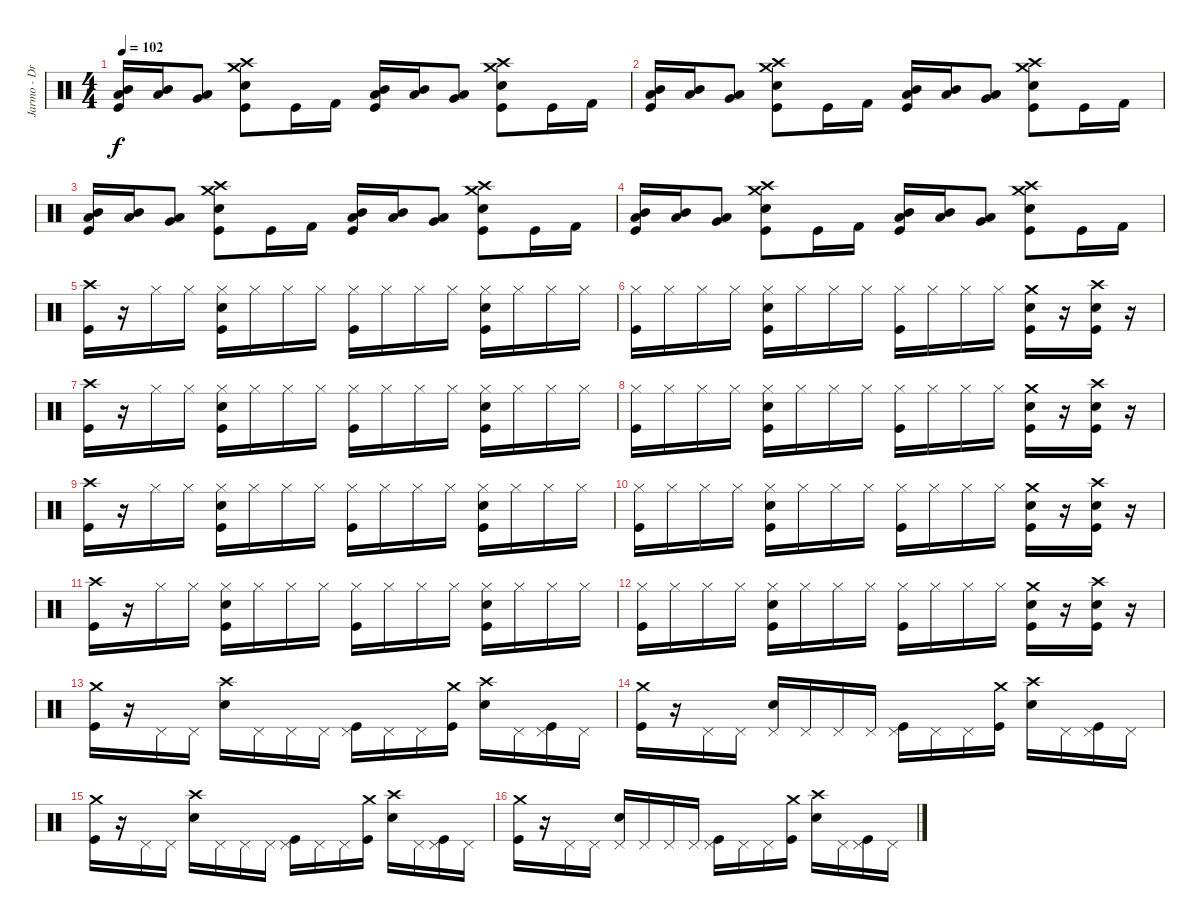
\track ("Jarmo - Drums" "Jarmo - Dr") {instrument percussion}
\staff {score}
\articulation defaults
\ts (4 4)
\tempo 102
\clef neutral
\ks c
("Kick (hit)" "Mid Tom (hit)" "Low Tom (hit)").16{dy f} ("Mid Tom (hit)" "Low Tom (hit)").16 ("Low Tom (hit)" "Very Low Tom (hit)").8 ("Kick (hit)" "Electric Snare (hit)" "Crash high (hit)" "Crash medium (hit)").8 "Kick (hit)".16 "Kick (hit) 2".16 ("Kick (hit)" "Mid Tom (hit)" "Low Tom (hit)").16 ("Mid Tom (hit)" "Low Tom (hit)").16 ("Low Tom (hit)" "Very Low Tom (hit)").8 ("Kick (hit)" "Electric Snare (hit)" "Crash high (hit)" "Crash medium (hit)").8 "Kick (hit)".16 "Kick (hit) 2".16 |
("Kick (hit)" "Mid Tom (hit)" "Low Tom (hit)").16 ("Mid Tom (hit)" "Low Tom (hit)").16 ("Low Tom (hit)" "Very Low Tom (hit)").8 ("Kick (hit)" "Electric Snare (hit)" "Crash high (hit)" "Crash medium (hit)").8 "Kick (hit)".16 "Kick (hit) 2".16 ("Kick (hit)" "Mid Tom (hit)" "Low Tom (hit)").16 ("Mid Tom (hit)" "Low Tom (hit)").16 ("Low Tom (hit)" "Very Low Tom (hit)").8 ("Kick (hit)" "Electric Snare (hit)" "Crash high (hit)" "Crash medium (hit)").8 "Kick (hit)".16 "Kick (hit) 2".16 |
("Kick (hit)" "Mid Tom (hit)" "Low Tom (hit)").16 ("Mid Tom (hit)" "Low Tom (hit)").16 ("Low Tom (hit)" "Very Low Tom (hit)").8 ("Kick (hit)" "Electric Snare (hit)" "Crash high (hit)" "Crash medium (hit)").8 "Kick (hit)".16 "Kick (hit) 2".16 ("Kick (hit)" "Mid Tom (hit)" "Low Tom (hit)").16 ("Mid Tom (hit)" "Low Tom (hit)").16 ("Low Tom (hit)" "Very Low Tom (hit)").8 ("Kick (hit)" "Electric Snare (hit)" "Crash high (hit)" "Crash medium (hit)").8 "Kick (hit)".16 "Kick (hit) 2".16 |
("Kick (hit)" "Mid Tom (hit)" "Low Tom (hit)").16 ("Mid Tom (hit)" "Low Tom (hit)").16 ("Low Tom (hit)" "Very Low Tom (hit)").8 ("Kick (hit)" "Electric Snare (hit)" "Crash high (hit)" "Crash medium (hit)").8 "Kick (hit)".16 "Kick (hit) 2".16 ("Kick (hit)" "Mid Tom (hit)" "Low Tom (hit)").16 ("Mid Tom (hit)" "Low Tom (hit)").16 ("Low Tom (hit)" "Very Low Tom (hit)").8 ("Kick (hit)" "Electric Snare (hit)" "Crash high (hit)" "Crash medium (hit)").8 "Kick (hit)".16 "Kick (hit) 2".16 |
("Kick (hit)" "Crash high (hit)").16 r.16 "Hi-Hat (closed)".16 "Hi-Hat (closed)".16 ("Kick (hit)" "Electric Snare (hit)" "Hi-Hat (closed)").16 "Hi-Hat (closed)".16 "Hi-Hat (closed)".16 "Hi-Hat (closed)".16 ("Kick (hit)" "Hi-Hat (closed)").16 "Hi-Hat (closed)".16 "Hi-Hat (closed)".16 "Hi-Hat (closed)".16 ("Kick (hit)" "Electric Snare (hit)" "Hi-Hat (closed)").16 "Hi-Hat (closed)".16 "Hi-Hat (closed)".16 "Hi-Hat (closed)".16 |
("Kick (hit)" "Hi-Hat (closed)").16 "Hi-Hat (closed)".16 "Hi-Hat (closed)".16 "Hi-Hat (closed)".16 ("Kick (hit)" "Electric Snare (hit)" "Hi-Hat (closed)").16 "Hi-Hat (closed)".16 "Hi-Hat (closed)".16 "Hi-Hat (closed)".16 ("Kick (hit)" "Hi-Hat (closed)").16 "Hi-Hat (closed)".16 "Hi-Hat (closed)".16 "Hi-Hat (closed)".16 ("Kick (hit)" "Electric Snare (hit)" "Crash medium (hit)").16 r.16 ("Kick (hit)" "Electric Snare (hit)" "Crash high (hit)").16 r.16 |
("Kick (hit)" "Crash high (hit)").16 r.16 "Hi-Hat (closed)".16 "Hi-Hat (closed)".16 ("Kick (hit)" "Electric Snare (hit)" "Hi-Hat (closed)").16 "Hi-Hat (closed)".16 "Hi-Hat (closed)".16 "Hi-Hat (closed)".16 ("Kick (hit)" "Hi-Hat (closed)").16 "Hi-Hat (closed)".16 "Hi-Hat (closed)".16 "Hi-Hat (closed)".16 ("Kick (hit)" "Electric Snare (hit)" "Hi-Hat (closed)").16 "Hi-Hat (closed)".16 "Hi-Hat (closed)".16 "Hi-Hat (closed)".16 |
("Kick (hit)" "Hi-Hat (closed)").16 "Hi-Hat (closed)".16 "Hi-Hat (closed)".16 "Hi-Hat (closed)".16 ("Kick (hit)" "Electric Snare (hit)" "Hi-Hat (closed)").16 "Hi-Hat (closed)".16 "Hi-Hat (closed)".16 "Hi-Hat (closed)".16 ("Kick (hit)" "Hi-Hat (closed)").16 "Hi-Hat (closed)".16 "Hi-Hat (closed)".16 "Hi-Hat (closed)".16 ("Kick (hit)" "Electric Snare (hit)" "Crash medium (hit)").16 r.16 ("Kick (hit)" "Electric Snare (hit)" "Crash high (hit)").16 r.16 |
("Kick (hit)" "Crash high (hit)").16 r.16 "Hi-Hat (closed)".16 "Hi-Hat (closed)".16 ("Kick (hit)" "Electric Snare (hit)" "Hi-Hat (closed)").16 "Hi-Hat (closed)".16 "Hi-Hat (closed)".16 "Hi-Hat (closed)".16 ("Kick (hit)" "Hi-Hat (closed)").16 "Hi-Hat (closed)".16 "Hi-Hat (closed)".16 "Hi-Hat (closed)".16 ("Kick (hit)" "Electric Snare (hit)" "Hi-Hat (closed)").16 "Hi-Hat (closed)".16 "Hi-Hat (closed)".16 "Hi-Hat (closed)".16 |
("Kick (hit)" "Hi-Hat (closed)").16 "Hi-Hat (closed)".16 "Hi-Hat (closed)".16 "Hi-Hat (closed)".16 ("Kick (hit)" "Electric Snare (hit)" "Hi-Hat (closed)").16 "Hi-Hat (closed)".16 "Hi-Hat (closed)".16 "Hi-Hat (closed)".16 ("Kick (hit)" "Hi-Hat (closed)").16 "Hi-Hat (closed)".16 "Hi-Hat (closed)".16 "Hi-Hat (closed)".16 ("Kick (hit)" "Electric Snare (hit)" "Crash medium (hit)").16 r.16 ("Kick (hit)" "Electric Snare (hit)" "Crash high (hit)").16 r.16 |
("Kick (hit)" "Crash high (hit)").16 r.16 "Hi-Hat (closed)".16 "Hi-Hat (closed)".16 ("Kick (hit)" "Electric Snare (hit)" "Hi-Hat (closed)").16 "Hi-Hat (closed)".16 "Hi-Hat (closed)".16 "Hi-Hat (closed)".16 ("Kick (hit)" "Hi-Hat (closed)").16 "Hi-Hat (closed)".16 "Hi-Hat (closed)".16 "Hi-Hat (closed)".16 ("Kick (hit)" "Electric Snare (hit)" "Hi-Hat (closed)").16 "Hi-Hat (closed)".16 "Hi-Hat (closed)".16 "Hi-Hat (closed)".16 |
("Kick (hit)" "Hi-Hat (closed)").16 "Hi-Hat (closed)".16 "Hi-Hat (closed)".16 "Hi-Hat (closed)".16 ("Kick (hit)" "Electric Snare (hit)" "Hi-Hat (closed)").16 "Hi-Hat (closed)".16 "Hi-Hat (closed)".16 "Hi-Hat (closed)".16 ("Kick (hit)" "Hi-Hat (closed)").16 "Hi-Hat (closed)".16 "Hi-Hat (closed)".16 "Hi-Hat (closed)".16 ("Kick (hit)" "Electric Snare (hit)" "Crash medium (hit)").16 r.16 ("Kick (hit)" "Electric Snare (hit)" "Crash high (hit)").16 r.16 |
("Crash medium (hit)" "Kick (hit)").16 r.16 "Pedal Hi-Hat (hit)".16 "Pedal Hi-Hat (hit)".16 ("Crash high (hit)" "Electric Snare (hit)").16 "Pedal Hi-Hat (hit)".16 "Pedal Hi-Hat (hit)".16 "Pedal Hi-Hat (hit)".16 ("Pedal Hi-Hat (hit)" "Kick (hit)").16 "Pedal Hi-Hat (hit)".16 "Pedal Hi-Hat (hit)".16 ("Crash medium (hit)" "Kick (hit)").16 ("Crash high (hit)" "Electric Snare (hit)").16 "Pedal Hi-Hat (hit)".16 ("Pedal Hi-Hat (hit)" "Kick (hit)").16 "Pedal Hi-Hat (hit)".16 |
("Crash medium (hit)" "Kick (hit)").16 r.16 "Pedal Hi-Hat (hit)".16 "Pedal Hi-Hat (hit)".16 ("Pedal Hi-Hat (hit)" "Electric Snare (hit)").16 "Pedal Hi-Hat (hit)".16 "Pedal Hi-Hat (hit)".16 "Pedal Hi-Hat (hit)".16 ("Pedal Hi-Hat (hit)" "Kick (hit)").16 "Pedal Hi-Hat (hit)".16 "Pedal Hi-Hat (hit)".16 ("Crash medium (hit)" "Kick (hit)").16 ("Crash high (hit)" "Electric Snare (hit)").16 "Pedal Hi-Hat (hit)".16 ("Pedal Hi-Hat (hit)" "Kick (hit)").16 "Pedal Hi-Hat (hit)".16 |
("Crash medium (hit)" "Kick (hit)").16 r.16 "Pedal Hi-Hat (hit)".16 "Pedal Hi-Hat (hit)".16 ("Crash high (hit)" "Electric Snare (hit)").16 "Pedal Hi-Hat (hit)".16 "Pedal Hi-Hat (hit)".16 "Pedal Hi-Hat (hit)".16 ("Pedal Hi-Hat (hit)" "Kick (hit)").16 "Pedal Hi-Hat (hit)".16 "Pedal Hi-Hat (hit)".16 ("Crash medium (hit)" "Kick (hit)").16 ("Crash high (hit)" "Electric Snare (hit)").16 "Pedal Hi-Hat (hit)".16 ("Pedal Hi-Hat (hit)" "Kick (hit)").16 "Pedal Hi-Hat (hit)".16 |
("Crash medium (hit)" "Kick (hit)").16 r.16 "Pedal Hi-Hat (hit)".16 "Pedal Hi-Hat (hit)".16 ("Pedal Hi-Hat (hit)" "Electric Snare (hit)").16 "Pedal Hi-Hat (hit)".16 "Pedal Hi-Hat (hit)".16 "Pedal Hi-Hat (hit)".16 ("Pedal Hi-Hat (hit)" "Kick (hit)").16 "Pedal Hi-Hat (hit)".16 "Pedal Hi-Hat (hit)".16 ("Crash medium (hit)" "Kick (hit)").16 ("Crash high (hit)" "Electric Snare (hit)").16 "Pedal Hi-Hat (hit)".16 ("Pedal Hi-Hat (hit)" "Kick (hit)").16 "Pedal Hi-Hat (hit)".16
